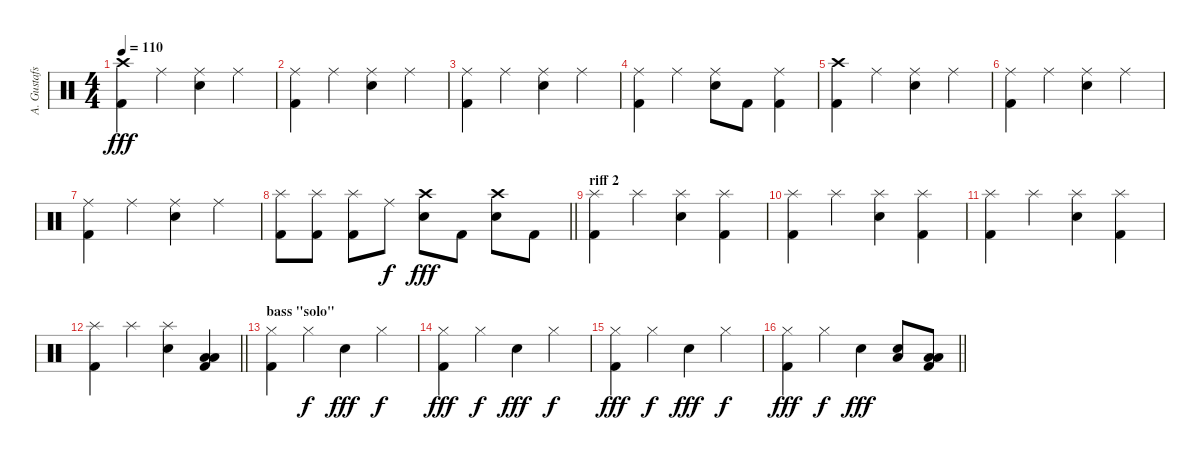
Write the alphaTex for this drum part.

\track ("A. Gustafsson" "A. Gustafs") {instrument percussion}
\staff {score}
\articulation defaults
\ts (4 4)
\tempo 110
\clef neutral
\ks c
("Crash high (hit)" "Kick (hit) 2").4{dy fff} "Ride (middle)".4 ("Ride (middle)" "Electric Snare (hit)").4 "Ride (middle)".4 |
("Ride (middle)" "Kick (hit) 2").4 "Ride (middle)".4 ("Ride (middle)" "Electric Snare (hit)").4 "Ride (middle)".4 |
("Ride (middle)" "Kick (hit) 2").4 "Ride (middle)".4 ("Ride (middle)" "Electric Snare (hit)").4 "Ride (middle)".4 |
("Ride (middle)" "Kick (hit) 2").4 "Ride (middle)".4 ("Ride (middle)" "Electric Snare (hit)").8 "Kick (hit) 2".8 ("Ride (middle)" "Kick (hit) 2").4 |
("Crash high (hit)" "Kick (hit) 2").4 "Ride (middle)".4 ("Ride (middle)" "Electric Snare (hit)").4 "Ride (middle)".4 |
("Ride (middle)" "Kick (hit) 2").4 "Ride (middle)".4 ("Ride (middle)" "Electric Snare (hit)").4 "Ride (middle)".4 |
("Ride (middle)" "Kick (hit) 2").4 "Ride (middle)".4 ("Ride (middle)" "Electric Snare (hit)").4 "Ride (middle)".4 |
\barLineRight lightlight
("Splash (hit)" "Kick (hit) 2").8 ("Splash (hit)" "Kick (hit) 2").8 ("Splash (hit)" "Kick (hit) 2").8 "Ride (middle)".8{dy f} ("Crash high (hit)" "Snare (hit) 2").8{dy fff} "Kick (hit) 2".8 ("Crash high (hit)" "Snare (hit) 2").8 "Kick (hit) 2".8 |
\section ("" "riff 2")
("Splash (hit)" "Kick (hit) 2").4 "Splash (hit)".4 ("Splash (hit)" "Snare (hit) 2").4 ("Splash (hit)" "Kick (hit) 2").4 |
("Splash (hit)" "Kick (hit) 2").4 "Splash (hit)".4 ("Splash (hit)" "Snare (hit) 2").4 ("Splash (hit)" "Kick (hit) 2").4 |
("Splash (hit)" "Kick (hit) 2").4 "Splash (hit)".4 ("Splash (hit)" "Snare (hit) 2").4 ("Splash (hit)" "Kick (hit) 2").4 |
\barLineRight lightlight
("Splash (hit)" "Kick (hit) 2").4 "Splash (hit)".4 ("Splash (hit)" "Snare (hit) 2").4 ("Low Floor Tom (hit)" "Low Floor Tom (hit)" "Kick (hit) 2").4 |
\section ("" "bass \"solo\"")
("Hi-Hat (closed)" "Kick (hit) 2").4 "Hi-Hat (closed)".4{dy f} "Snare (hit) 2".4{dy fff} "Hi-Hat (closed)".4{dy f} |
("Hi-Hat (closed)" "Kick (hit) 2").4{dy fff} "Hi-Hat (closed)".4{dy f} "Snare (hit) 2".4{dy fff} "Hi-Hat (closed)".4{dy f} |
("Hi-Hat (closed)" "Kick (hit) 2").4{dy fff} "Hi-Hat (closed)".4{dy f} "Snare (hit) 2".4{dy fff} "Hi-Hat (closed)".4{dy f} |
\barLineRight lightlight
("Hi-Hat (closed)" "Kick (hit) 2").4{dy fff} "Hi-Hat (closed)".4{dy f} "Snare (hit) 2".4{dy fff} ("Low Tom (hit)" "Electric Snare (hit)").8 ("Low Floor Tom (hit)" "Low Floor Tom (hit)" "Kick (hit) 2").8
